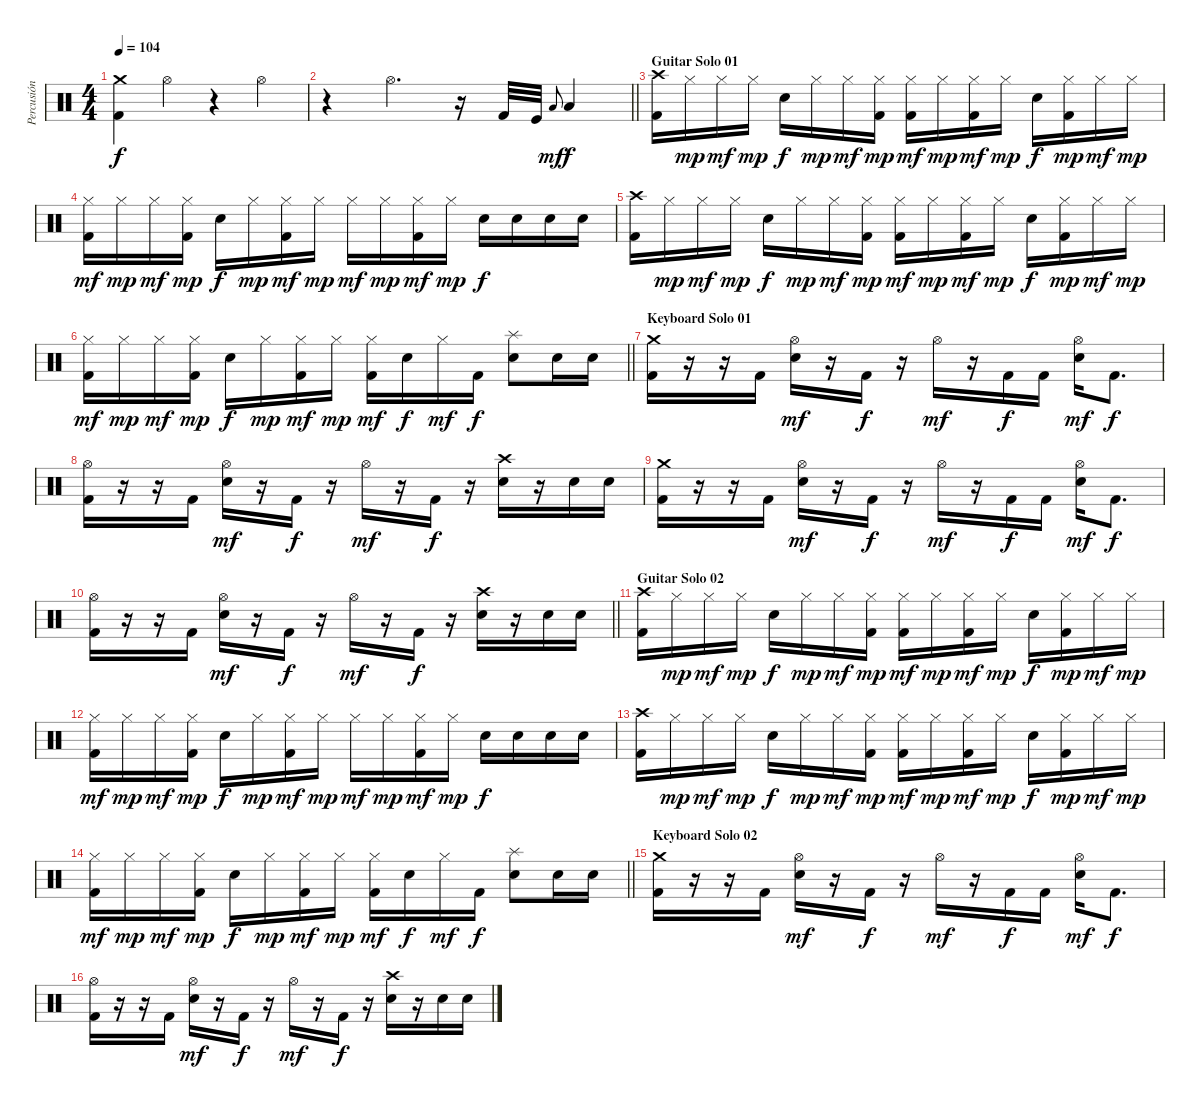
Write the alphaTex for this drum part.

\track ("Percusión" "Percusión") {instrument percussion}
\staff {score}
\articulation defaults
\ts (4 4)
\tempo 104
\clef neutral
\ks c
("Crash medium (hit)" "Kick (hit) 2").4{dy f} "Hi-Hat (open)".4 r.4 "Hi-Hat (open)".4 |
\barLineRight lightlight
r.4 "Hi-Hat (open)".4{d} r.16 "Kick (hit) 2".32 "Kick (hit)".32 "Low Floor Tom (hit)".8{gr onbeat dy mf} "Low Floor Tom (hit)".4{dy f} |
\section ("" "Guitar Solo 01")
("Crash high (hit)" "Kick (hit) 2").16 "Hi-Hat (closed)".16{dy mp} "Hi-Hat (closed)".16{dy mf} "Hi-Hat (closed)".16{dy mp} "Snare (hit) 2".16{dy f} "Hi-Hat (closed)".16{dy mp} "Hi-Hat (closed)".16{dy mf} ("Hi-Hat (closed)" "Kick (hit) 2").16{dy mp} ("Hi-Hat (closed)" "Kick (hit) 2").16{dy mf} "Hi-Hat (closed)".16{dy mp} ("Hi-Hat (closed)" "Kick (hit) 2").16{dy mf} "Hi-Hat (closed)".16{dy mp} "Snare (hit) 2".16{dy f} ("Hi-Hat (closed)" "Kick (hit) 2").16{dy mp} "Hi-Hat (closed)".16{dy mf} "Hi-Hat (closed)".16{dy mp} |
("Hi-Hat (closed)" "Kick (hit) 2").16{dy mf} "Hi-Hat (closed)".16{dy mp} "Hi-Hat (closed)".16{dy mf} ("Hi-Hat (closed)" "Kick (hit) 2").16{dy mp} "Snare (hit) 2".16{dy f} "Hi-Hat (closed)".16{dy mp} ("Hi-Hat (closed)" "Kick (hit) 2").16{dy mf} "Hi-Hat (closed)".16{dy mp} "Hi-Hat (closed)".16{dy mf} "Hi-Hat (closed)".16{dy mp} ("Hi-Hat (closed)" "Kick (hit) 2").16{dy mf} "Hi-Hat (closed)".16{dy mp} "Snare (hit) 2".16{dy f} "Snare (hit) 2".16 "Snare (hit) 2".16 "Snare (hit) 2".16 |
("Crash high (hit)" "Kick (hit) 2").16 "Hi-Hat (closed)".16{dy mp} "Hi-Hat (closed)".16{dy mf} "Hi-Hat (closed)".16{dy mp} "Snare (hit) 2".16{dy f} "Hi-Hat (closed)".16{dy mp} "Hi-Hat (closed)".16{dy mf} ("Hi-Hat (closed)" "Kick (hit) 2").16{dy mp} ("Hi-Hat (closed)" "Kick (hit) 2").16{dy mf} "Hi-Hat (closed)".16{dy mp} ("Hi-Hat (closed)" "Kick (hit) 2").16{dy mf} "Hi-Hat (closed)".16{dy mp} "Snare (hit) 2".16{dy f} ("Hi-Hat (closed)" "Kick (hit) 2").16{dy mp} "Hi-Hat (closed)".16{dy mf} "Hi-Hat (closed)".16{dy mp} |
\barLineRight lightlight
("Hi-Hat (closed)" "Kick (hit) 2").16{dy mf} "Hi-Hat (closed)".16{dy mp} "Hi-Hat (closed)".16{dy mf} ("Hi-Hat (closed)" "Kick (hit) 2").16{dy mp} "Snare (hit) 2".16{dy f} "Hi-Hat (closed)".16{dy mp} ("Hi-Hat (closed)" "Kick (hit) 2").16{dy mf} "Hi-Hat (closed)".16{dy mp} ("Hi-Hat (closed)" "Kick (hit) 2").16{dy mf} "Snare (hit) 2".16{dy f} "Hi-Hat (closed)".16{dy mf} "Kick (hit) 2".16{dy f} ("Splash (hit)" "Snare (hit) 2").8 "Snare (hit) 2".16 "Snare (hit) 2".16 |
\section ("" "Keyboard Solo 01")
("Crash medium (hit)" "Kick (hit) 2").16 r.16 r.16 "Kick (hit) 2".16 ("Hi-Hat (open)" "Snare (hit) 2").16{dy mf} r.16 "Kick (hit) 2".16{dy f} r.16 "Hi-Hat (open)".16{dy mf} r.16 "Kick (hit) 2".16{dy f} "Kick (hit) 2".16 ("Hi-Hat (open)" "Snare (hit) 2").16{dy mf} "Kick (hit) 2".8{d dy f} |
("Hi-Hat (open)" "Kick (hit) 2").16 r.16 r.16 "Kick (hit) 2".16 ("Hi-Hat (open)" "Snare (hit) 2").16{dy mf} r.16 "Kick (hit) 2".16{dy f} r.16 "Hi-Hat (open)".16{dy mf} r.16 "Kick (hit) 2".16{dy f} r.16 ("Crash high (hit)" "Snare (hit) 2").16 r.16 "Snare (hit) 2".16 "Snare (hit) 2".16 |
("Crash medium (hit)" "Kick (hit) 2").16 r.16 r.16 "Kick (hit) 2".16 ("Hi-Hat (open)" "Snare (hit) 2").16{dy mf} r.16 "Kick (hit) 2".16{dy f} r.16 "Hi-Hat (open)".16{dy mf} r.16 "Kick (hit) 2".16{dy f} "Kick (hit) 2".16 ("Hi-Hat (open)" "Snare (hit) 2").16{dy mf} "Kick (hit) 2".8{d dy f} |
\barLineRight lightlight
("Hi-Hat (open)" "Kick (hit) 2").16 r.16 r.16 "Kick (hit) 2".16 ("Hi-Hat (open)" "Snare (hit) 2").16{dy mf} r.16 "Kick (hit) 2".16{dy f} r.16 "Hi-Hat (open)".16{dy mf} r.16 "Kick (hit) 2".16{dy f} r.16 ("Crash high (hit)" "Snare (hit) 2").16 r.16 "Snare (hit) 2".16 "Snare (hit) 2".16 |
\section ("" "Guitar Solo 02")
("Crash high (hit)" "Kick (hit) 2").16 "Hi-Hat (closed)".16{dy mp} "Hi-Hat (closed)".16{dy mf} "Hi-Hat (closed)".16{dy mp} "Snare (hit) 2".16{dy f} "Hi-Hat (closed)".16{dy mp} "Hi-Hat (closed)".16{dy mf} ("Hi-Hat (closed)" "Kick (hit) 2").16{dy mp} ("Hi-Hat (closed)" "Kick (hit) 2").16{dy mf} "Hi-Hat (closed)".16{dy mp} ("Hi-Hat (closed)" "Kick (hit) 2").16{dy mf} "Hi-Hat (closed)".16{dy mp} "Snare (hit) 2".16{dy f} ("Hi-Hat (closed)" "Kick (hit) 2").16{dy mp} "Hi-Hat (closed)".16{dy mf} "Hi-Hat (closed)".16{dy mp} |
("Hi-Hat (closed)" "Kick (hit) 2").16{dy mf} "Hi-Hat (closed)".16{dy mp} "Hi-Hat (closed)".16{dy mf} ("Hi-Hat (closed)" "Kick (hit) 2").16{dy mp} "Snare (hit) 2".16{dy f} "Hi-Hat (closed)".16{dy mp} ("Hi-Hat (closed)" "Kick (hit) 2").16{dy mf} "Hi-Hat (closed)".16{dy mp} "Hi-Hat (closed)".16{dy mf} "Hi-Hat (closed)".16{dy mp} ("Hi-Hat (closed)" "Kick (hit) 2").16{dy mf} "Hi-Hat (closed)".16{dy mp} "Snare (hit) 2".16{dy f} "Snare (hit) 2".16 "Snare (hit) 2".16 "Snare (hit) 2".16 |
("Crash high (hit)" "Kick (hit) 2").16 "Hi-Hat (closed)".16{dy mp} "Hi-Hat (closed)".16{dy mf} "Hi-Hat (closed)".16{dy mp} "Snare (hit) 2".16{dy f} "Hi-Hat (closed)".16{dy mp} "Hi-Hat (closed)".16{dy mf} ("Hi-Hat (closed)" "Kick (hit) 2").16{dy mp} ("Hi-Hat (closed)" "Kick (hit) 2").16{dy mf} "Hi-Hat (closed)".16{dy mp} ("Hi-Hat (closed)" "Kick (hit) 2").16{dy mf} "Hi-Hat (closed)".16{dy mp} "Snare (hit) 2".16{dy f} ("Hi-Hat (closed)" "Kick (hit) 2").16{dy mp} "Hi-Hat (closed)".16{dy mf} "Hi-Hat (closed)".16{dy mp} |
\barLineRight lightlight
("Hi-Hat (closed)" "Kick (hit) 2").16{dy mf} "Hi-Hat (closed)".16{dy mp} "Hi-Hat (closed)".16{dy mf} ("Hi-Hat (closed)" "Kick (hit) 2").16{dy mp} "Snare (hit) 2".16{dy f} "Hi-Hat (closed)".16{dy mp} ("Hi-Hat (closed)" "Kick (hit) 2").16{dy mf} "Hi-Hat (closed)".16{dy mp} ("Hi-Hat (closed)" "Kick (hit) 2").16{dy mf} "Snare (hit) 2".16{dy f} "Hi-Hat (closed)".16{dy mf} "Kick (hit) 2".16{dy f} ("Splash (hit)" "Snare (hit) 2").8 "Snare (hit) 2".16 "Snare (hit) 2".16 |
\section ("" "Keyboard Solo 02")
("Crash medium (hit)" "Kick (hit) 2").16 r.16 r.16 "Kick (hit) 2".16 ("Hi-Hat (open)" "Snare (hit) 2").16{dy mf} r.16 "Kick (hit) 2".16{dy f} r.16 "Hi-Hat (open)".16{dy mf} r.16 "Kick (hit) 2".16{dy f} "Kick (hit) 2".16 ("Hi-Hat (open)" "Snare (hit) 2").16{dy mf} "Kick (hit) 2".8{d dy f} |
("Hi-Hat (open)" "Kick (hit) 2").16 r.16 r.16 "Kick (hit) 2".16 ("Hi-Hat (open)" "Snare (hit) 2").16{dy mf} r.16 "Kick (hit) 2".16{dy f} r.16 "Hi-Hat (open)".16{dy mf} r.16 "Kick (hit) 2".16{dy f} r.16 ("Crash high (hit)" "Snare (hit) 2").16 r.16 "Snare (hit) 2".16 "Snare (hit) 2".16
